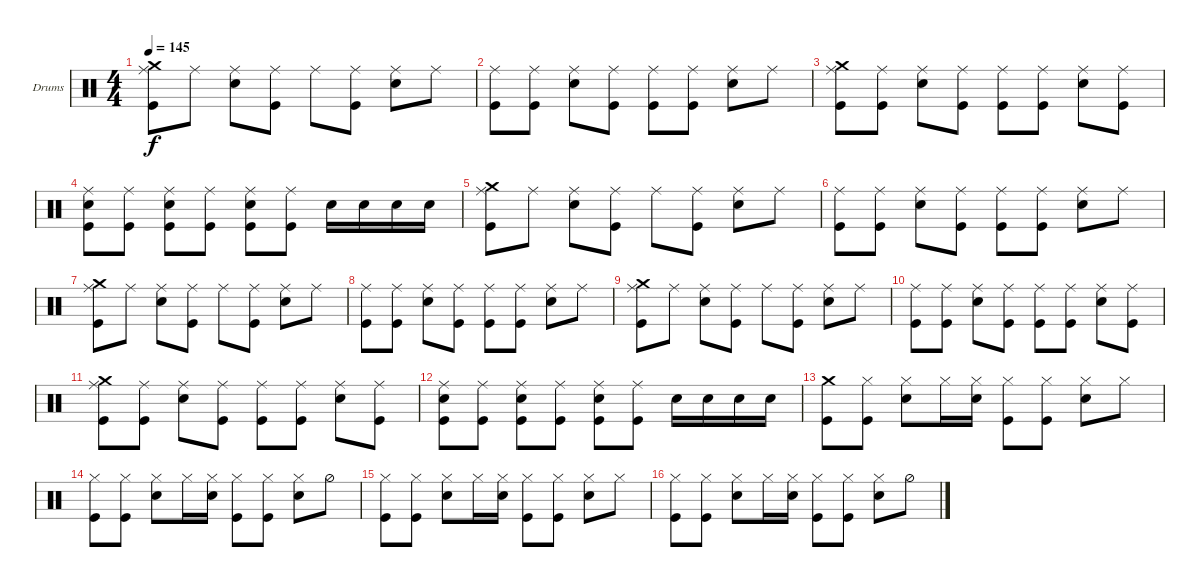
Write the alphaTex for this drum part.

\defaultSystemsLayout 4
\bracketExtendMode groupsimilarinstruments
\firstSystemTrackNameOrientation horizontal
\otherSystemsTrackNameOrientation horizontal
\track ("Nikola" "Drums") {instrument percussion}
\staff {score}
\articulation defaults
\ts (4 4)
\tempo 145
\clef neutral
\ks c
("Kick (hit)" "Ride (middle)" "Crash medium (hit)").8{dy f} "Ride (middle)".8 ("Snare (hit) 2" "Ride (middle)").8 ("Kick (hit)" "Ride (middle)").8 "Ride (middle)".8 ("Kick (hit)" "Ride (middle)").8 ("Snare (hit) 2" "Ride (middle)").8 "Ride (middle)".8 |
("Kick (hit)" "Ride (middle)").8 ("Kick (hit)" "Ride (middle)").8 ("Snare (hit) 2" "Ride (middle)").8 ("Kick (hit)" "Ride (middle)").8 ("Kick (hit)" "Ride (middle)").8 ("Kick (hit)" "Ride (middle)").8 ("Snare (hit) 2" "Ride (middle)").8 "Ride (middle)".8 |
("Crash medium (hit)" "Kick (hit)" "Ride (middle)").8 ("Ride (middle)" "Kick (hit)").8 ("Snare (hit) 2" "Ride (middle)").8 ("Kick (hit)" "Ride (middle)").8 ("Ride (middle)" "Kick (hit)").8 ("Kick (hit)" "Ride (middle)").8 ("Snare (hit) 2" "Ride (middle)").8 ("Ride (middle)" "Kick (hit)").8 |
("Kick (hit)" "Snare (hit) 2" "Ride (middle)").8 ("Kick (hit)" "Ride (middle)").8 ("Kick (hit)" "Snare (hit) 2" "Ride (middle)").8 ("Kick (hit)" "Ride (middle)").8 ("Kick (hit)" "Snare (hit) 2" "Ride (middle)").8 ("Kick (hit)" "Ride (middle)").8 "Snare (hit) 2".16 "Snare (hit) 2".16 "Snare (hit) 2".16 "Snare (hit) 2".16 |
("Kick (hit)" "Ride (middle)" "Crash medium (hit)").8 "Ride (middle)".8 ("Snare (hit) 2" "Ride (middle)").8 ("Kick (hit)" "Ride (middle)").8 "Ride (middle)".8 ("Kick (hit)" "Ride (middle)").8 ("Snare (hit) 2" "Ride (middle)").8 "Ride (middle)".8 |
("Kick (hit)" "Ride (middle)").8 ("Kick (hit)" "Ride (middle)").8 ("Snare (hit) 2" "Ride (middle)").8 ("Kick (hit)" "Ride (middle)").8 ("Kick (hit)" "Ride (middle)").8 ("Kick (hit)" "Ride (middle)").8 ("Snare (hit) 2" "Ride (middle)").8 "Ride (middle)".8 |
("Crash medium (hit)" "Kick (hit)" "Ride (middle)").8 "Ride (middle)".8 ("Snare (hit) 2" "Ride (middle)").8 ("Kick (hit)" "Ride (middle)").8 "Ride (middle)".8 ("Kick (hit)" "Ride (middle)").8 ("Snare (hit) 2" "Ride (middle)").8 "Ride (middle)".8 |
("Kick (hit)" "Ride (middle)").8 ("Kick (hit)" "Ride (middle)").8 ("Snare (hit) 2" "Ride (middle)").8 ("Kick (hit)" "Ride (middle)").8 ("Kick (hit)" "Ride (middle)").8 ("Kick (hit)" "Ride (middle)").8 ("Snare (hit) 2" "Ride (middle)").8 "Ride (middle)".8 |
("Kick (hit)" "Ride (middle)" "Crash medium (hit)").8 "Ride (middle)".8 ("Snare (hit) 2" "Ride (middle)").8 ("Kick (hit)" "Ride (middle)").8 "Ride (middle)".8 ("Kick (hit)" "Ride (middle)").8 ("Snare (hit) 2" "Ride (middle)").8 "Ride (middle)".8 |
("Kick (hit)" "Ride (middle)").8 ("Kick (hit)" "Ride (middle)").8 ("Snare (hit) 2" "Ride (middle)").8 ("Kick (hit)" "Ride (middle)").8 ("Kick (hit)" "Ride (middle)").8 ("Kick (hit)" "Ride (middle)").8 ("Snare (hit) 2" "Ride (middle)").8 ("Ride (middle)" "Kick (hit)").8 |
("Crash medium (hit)" "Kick (hit)" "Ride (middle)").8 ("Ride (middle)" "Kick (hit)").8 ("Snare (hit) 2" "Ride (middle)").8 ("Kick (hit)" "Ride (middle)").8 ("Ride (middle)" "Kick (hit)").8 ("Kick (hit)" "Ride (middle)").8 ("Snare (hit) 2" "Ride (middle)").8 ("Ride (middle)" "Kick (hit)").8 |
("Kick (hit)" "Snare (hit) 2" "Ride (middle)").8 ("Kick (hit)" "Ride (middle)").8 ("Kick (hit)" "Snare (hit) 2" "Ride (middle)").8 ("Kick (hit)" "Ride (middle)").8 ("Kick (hit)" "Snare (hit) 2" "Ride (middle)").8 ("Kick (hit)" "Ride (middle)").8 "Snare (hit) 2".16 "Snare (hit) 2".16 "Snare (hit) 2".16 "Snare (hit) 2".16 |
("Kick (hit)" "Crash medium (hit)").8 ("Kick (hit)" "Hi-Hat (closed)").8 ("Snare (hit) 2" "Hi-Hat (closed)").8 "Hi-Hat (closed)".16 ("Snare (hit) 2" "Hi-Hat (closed)").16 ("Kick (hit)" "Hi-Hat (closed)").8 ("Kick (hit)" "Hi-Hat (closed)").8 ("Snare (hit) 2" "Hi-Hat (closed)").8 "Hi-Hat (closed)".8 |
("Kick (hit)" "Hi-Hat (closed)").8 ("Kick (hit)" "Hi-Hat (closed)").8 ("Snare (hit) 2" "Hi-Hat (closed)").8 "Hi-Hat (closed)".16 ("Snare (hit) 2" "Hi-Hat (closed)").16 ("Kick (hit)" "Hi-Hat (closed)").8 ("Kick (hit)" "Hi-Hat (closed)").8 ("Snare (hit) 2" "Hi-Hat (closed)").8 "Hi-Hat (half)".8 |
("Kick (hit)" "Hi-Hat (closed)").8 ("Kick (hit)" "Hi-Hat (closed)").8 ("Snare (hit) 2" "Hi-Hat (closed)").8 "Hi-Hat (closed)".16 ("Snare (hit) 2" "Hi-Hat (closed)").16 ("Kick (hit)" "Hi-Hat (closed)").8 ("Kick (hit)" "Hi-Hat (closed)").8 ("Snare (hit) 2" "Hi-Hat (closed)").8 "Hi-Hat (closed)".8 |
("Kick (hit)" "Hi-Hat (closed)").8 ("Kick (hit)" "Hi-Hat (closed)").8 ("Snare (hit) 2" "Hi-Hat (closed)").8 "Hi-Hat (closed)".16 ("Snare (hit) 2" "Hi-Hat (closed)").16 ("Kick (hit)" "Hi-Hat (closed)").8 ("Kick (hit)" "Hi-Hat (closed)").8 ("Snare (hit) 2" "Hi-Hat (closed)").8 "Hi-Hat (half)".8
